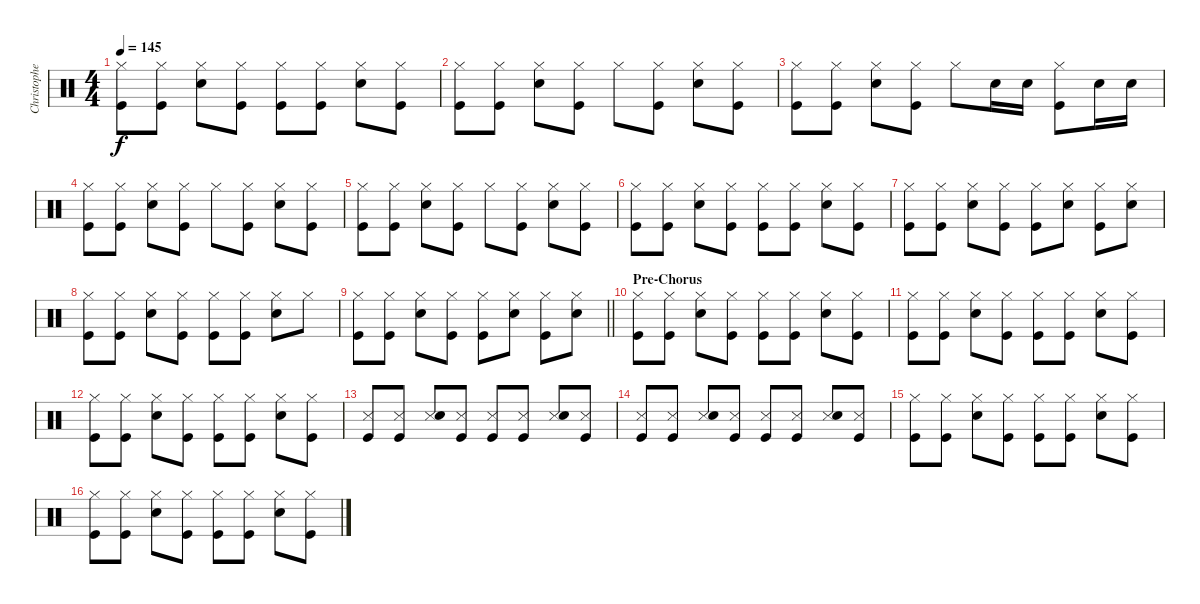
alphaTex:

\track ("Christopher - Drums" "Christophe") {instrument percussion}
\staff {score}
\articulation defaults
\ts (4 4)
\tempo 145
\clef neutral
\ks c
("Hi-Hat (closed)" "Kick (hit)").8{dy f} ("Hi-Hat (closed)" "Kick (hit)").8 ("Hi-Hat (closed)" "Snare (hit) 2").8 ("Hi-Hat (closed)" "Kick (hit)").8 ("Hi-Hat (closed)" "Kick (hit)").8 ("Hi-Hat (closed)" "Kick (hit)").8 ("Hi-Hat (closed)" "Snare (hit) 2").8 ("Hi-Hat (closed)" "Kick (hit)").8 |
("Hi-Hat (closed)" "Kick (hit)").8 ("Hi-Hat (closed)" "Kick (hit)").8 ("Hi-Hat (closed)" "Snare (hit) 2").8 ("Hi-Hat (closed)" "Kick (hit)").8 "Hi-Hat (closed)".8 ("Hi-Hat (closed)" "Kick (hit)").8 ("Hi-Hat (closed)" "Snare (hit) 2").8 ("Hi-Hat (closed)" "Kick (hit)").8 |
("Hi-Hat (closed)" "Kick (hit)").8 ("Hi-Hat (closed)" "Kick (hit)").8 ("Hi-Hat (closed)" "Snare (hit) 2").8 ("Hi-Hat (closed)" "Kick (hit)").8 "Hi-Hat (closed)".8 "Snare (hit) 2".16 "Snare (hit) 2".16 ("Hi-Hat (closed)" "Kick (hit)").8 "Snare (hit) 2".16 "Snare (hit) 2".16 |
("Hi-Hat (closed)" "Kick (hit)").8 ("Hi-Hat (closed)" "Kick (hit)").8 ("Hi-Hat (closed)" "Snare (hit) 2").8 ("Hi-Hat (closed)" "Kick (hit)").8 "Hi-Hat (closed)".8 ("Hi-Hat (closed)" "Kick (hit)").8 ("Hi-Hat (closed)" "Snare (hit) 2").8 ("Hi-Hat (closed)" "Kick (hit)").8 |
("Hi-Hat (closed)" "Kick (hit)").8 ("Hi-Hat (closed)" "Kick (hit)").8 ("Hi-Hat (closed)" "Snare (hit) 2").8 ("Hi-Hat (closed)" "Kick (hit)").8 "Hi-Hat (closed)".8 ("Hi-Hat (closed)" "Kick (hit)").8 ("Hi-Hat (closed)" "Snare (hit) 2").8 ("Hi-Hat (closed)" "Kick (hit)").8 |
("Hi-Hat (closed)" "Kick (hit)").8 ("Hi-Hat (closed)" "Kick (hit)").8 ("Hi-Hat (closed)" "Snare (hit) 2").8 ("Hi-Hat (closed)" "Kick (hit)").8 ("Hi-Hat (closed)" "Kick (hit)").8 ("Hi-Hat (closed)" "Kick (hit)").8 ("Hi-Hat (closed)" "Snare (hit) 2").8 ("Hi-Hat (closed)" "Kick (hit)").8 |
("Hi-Hat (closed)" "Kick (hit)").8 ("Hi-Hat (closed)" "Kick (hit)").8 ("Hi-Hat (closed)" "Snare (hit) 2").8 ("Hi-Hat (closed)" "Kick (hit)").8 ("Hi-Hat (closed)" "Kick (hit)").8 ("Hi-Hat (closed)" "Snare (hit) 2").8 ("Hi-Hat (closed)" "Kick (hit)").8 ("Hi-Hat (closed)" "Snare (hit) 2").8 |
("Hi-Hat (closed)" "Kick (hit)").8 ("Hi-Hat (closed)" "Kick (hit)").8 ("Hi-Hat (closed)" "Snare (hit) 2").8 ("Hi-Hat (closed)" "Kick (hit)").8 ("Hi-Hat (closed)" "Kick (hit)").8 ("Hi-Hat (closed)" "Kick (hit)").8 ("Hi-Hat (closed)" "Snare (hit) 2").8 "Hi-Hat (closed)".8 |
\barLineRight lightlight
("Hi-Hat (closed)" "Kick (hit)").8 ("Hi-Hat (closed)" "Kick (hit)").8 ("Hi-Hat (closed)" "Snare (hit) 2").8 ("Hi-Hat (closed)" "Kick (hit)").8 ("Hi-Hat (closed)" "Kick (hit)").8 ("Hi-Hat (closed)" "Snare (hit) 2").8 ("Hi-Hat (closed)" "Kick (hit)").8 ("Hi-Hat (closed)" "Snare (hit) 2").8 |
\section ("" "Pre-Chorus")
("Hi-Hat (closed)" "Kick (hit)").8 ("Hi-Hat (closed)" "Kick (hit)").8 ("Hi-Hat (closed)" "Snare (hit) 2").8 ("Hi-Hat (closed)" "Kick (hit)").8 ("Hi-Hat (closed)" "Kick (hit)").8 ("Hi-Hat (closed)" "Kick (hit)").8 ("Hi-Hat (closed)" "Snare (hit) 2").8 ("Hi-Hat (closed)" "Kick (hit)").8 |
("Hi-Hat (closed)" "Kick (hit)").8 ("Hi-Hat (closed)" "Kick (hit)").8 ("Hi-Hat (closed)" "Snare (hit) 2").8 ("Hi-Hat (closed)" "Kick (hit)").8 ("Hi-Hat (closed)" "Kick (hit)").8 ("Hi-Hat (closed)" "Kick (hit)").8 ("Hi-Hat (closed)" "Snare (hit) 2").8 ("Hi-Hat (closed)" "Kick (hit)").8 |
("Hi-Hat (closed)" "Kick (hit)").8 ("Hi-Hat (closed)" "Kick (hit)").8 ("Hi-Hat (closed)" "Snare (hit) 2").8 ("Hi-Hat (closed)" "Kick (hit)").8 ("Hi-Hat (closed)" "Kick (hit)").8 ("Hi-Hat (closed)" "Kick (hit)").8 ("Hi-Hat (closed)" "Snare (hit) 2").8 ("Hi-Hat (closed)" "Kick (hit)").8 |
("Snare (side stick) 3" "Kick (hit)").8 ("Snare (side stick) 3" "Kick (hit)").8 ("Snare (side stick) 3" "Snare (hit) 2").8 ("Snare (side stick) 3" "Kick (hit)").8 ("Snare (side stick) 3" "Kick (hit)").8 ("Snare (side stick) 3" "Kick (hit)").8 ("Snare (side stick) 3" "Snare (hit) 2").8 ("Snare (side stick) 3" "Kick (hit)").8 |
("Snare (side stick) 3" "Kick (hit)").8 ("Snare (side stick) 3" "Kick (hit)").8 ("Snare (side stick) 3" "Snare (hit) 2").8 ("Snare (side stick) 3" "Kick (hit)").8 ("Snare (side stick) 3" "Kick (hit)").8 ("Snare (side stick) 3" "Kick (hit)").8 ("Snare (side stick) 3" "Snare (hit) 2").8 ("Snare (side stick) 3" "Kick (hit)").8 |
("Hi-Hat (closed)" "Kick (hit)").8 ("Hi-Hat (closed)" "Kick (hit)").8 ("Hi-Hat (closed)" "Snare (hit) 2").8 ("Hi-Hat (closed)" "Kick (hit)").8 ("Hi-Hat (closed)" "Kick (hit)").8 ("Hi-Hat (closed)" "Kick (hit)").8 ("Hi-Hat (closed)" "Snare (hit) 2").8 ("Hi-Hat (closed)" "Kick (hit)").8 |
("Hi-Hat (closed)" "Kick (hit)").8 ("Hi-Hat (closed)" "Kick (hit)").8 ("Hi-Hat (closed)" "Snare (hit) 2").8 ("Hi-Hat (closed)" "Kick (hit)").8 ("Hi-Hat (closed)" "Kick (hit)").8 ("Hi-Hat (closed)" "Kick (hit)").8 ("Hi-Hat (closed)" "Snare (hit) 2").8 ("Hi-Hat (closed)" "Kick (hit)").8
